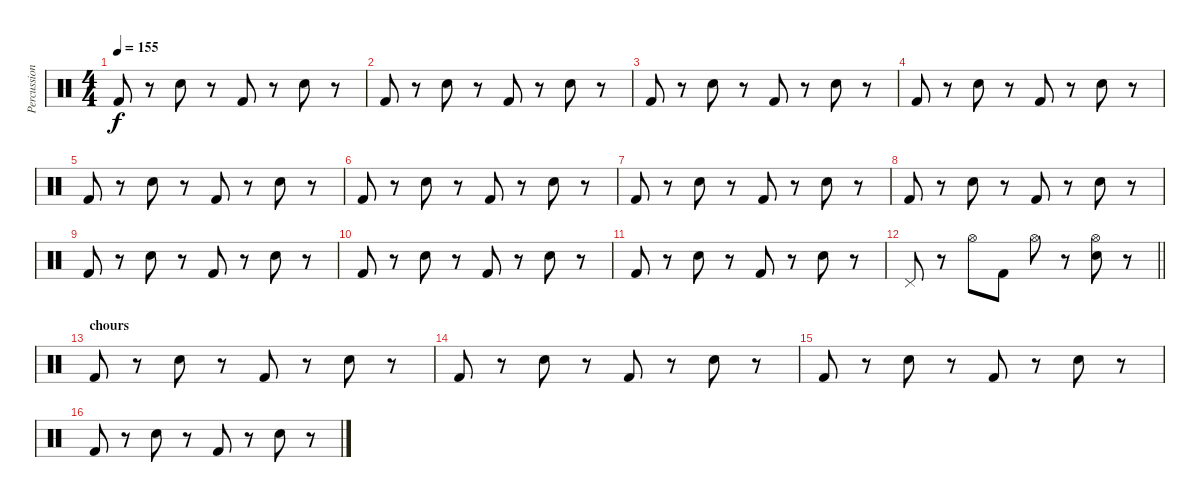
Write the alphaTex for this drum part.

\track ("Percussions" "Percussion") {instrument percussion}
\staff {score}
\articulation defaults
\ts (4 4)
\tempo 155
\clef neutral
\ks c "Kick (hit) 2".8{dy f}
r.8 "Snare (hit) 2".8 r.8 "Kick (hit) 2".8 r.8 "Snare (hit) 2".8 r.8 |
"Kick (hit) 2".8 r.8 "Snare (hit) 2".8 r.8 "Kick (hit) 2".8 r.8 "Snare (hit) 2".8 r.8 |
"Kick (hit) 2".8 r.8 "Snare (hit) 2".8 r.8 "Kick (hit) 2".8 r.8 "Snare (hit) 2".8 r.8 |
"Kick (hit) 2".8 r.8 "Snare (hit) 2".8 r.8 "Kick (hit) 2".8 r.8 "Snare (hit) 2".8 r.8 |
"Kick (hit) 2".8 r.8 "Snare (hit) 2".8 r.8 "Kick (hit) 2".8 r.8 "Snare (hit) 2".8 r.8 |
"Kick (hit) 2".8 r.8 "Snare (hit) 2".8 r.8 "Kick (hit) 2".8 r.8 "Snare (hit) 2".8 r.8 |
"Kick (hit) 2".8 r.8 "Snare (hit) 2".8 r.8 "Kick (hit) 2".8 r.8 "Snare (hit) 2".8 r.8 |
"Kick (hit) 2".8 r.8 "Snare (hit) 2".8 r.8 "Kick (hit) 2".8 r.8 "Snare (hit) 2".8 r.8 |
"Kick (hit) 2".8 r.8 "Snare (hit) 2".8 r.8 "Kick (hit) 2".8 r.8 "Snare (hit) 2".8 r.8 |
"Kick (hit) 2".8 r.8 "Snare (hit) 2".8 r.8 "Kick (hit) 2".8 r.8 "Snare (hit) 2".8 r.8 |
"Kick (hit) 2".8 r.8 "Snare (hit) 2".8 r.8 "Kick (hit) 2".8 r.8 "Snare (hit) 2".8 r.8 |
\barLineRight lightlight "Pedal Hi-Hat (hit)".8
r.8 "Hi-Hat (open)".8 "Kick (hit) 2".8 "Hi-Hat (open)".8 r.8 ("Hi-Hat (open)" "Snare (hit) 2").8 r.8 |
\section ("" "chours")
"Kick (hit) 2".8 r.8 "Snare (hit) 2".8 r.8 "Kick (hit) 2".8 r.8 "Snare (hit) 2".8 r.8 |
"Kick (hit) 2".8 r.8 "Snare (hit) 2".8 r.8 "Kick (hit) 2".8 r.8 "Snare (hit) 2".8 r.8 |
"Kick (hit) 2".8 r.8 "Snare (hit) 2".8 r.8 "Kick (hit) 2".8 r.8 "Snare (hit) 2".8 r.8 |
"Kick (hit) 2".8 r.8 "Snare (hit) 2".8 r.8 "Kick (hit) 2".8 r.8 "Snare (hit) 2".8 r.8
